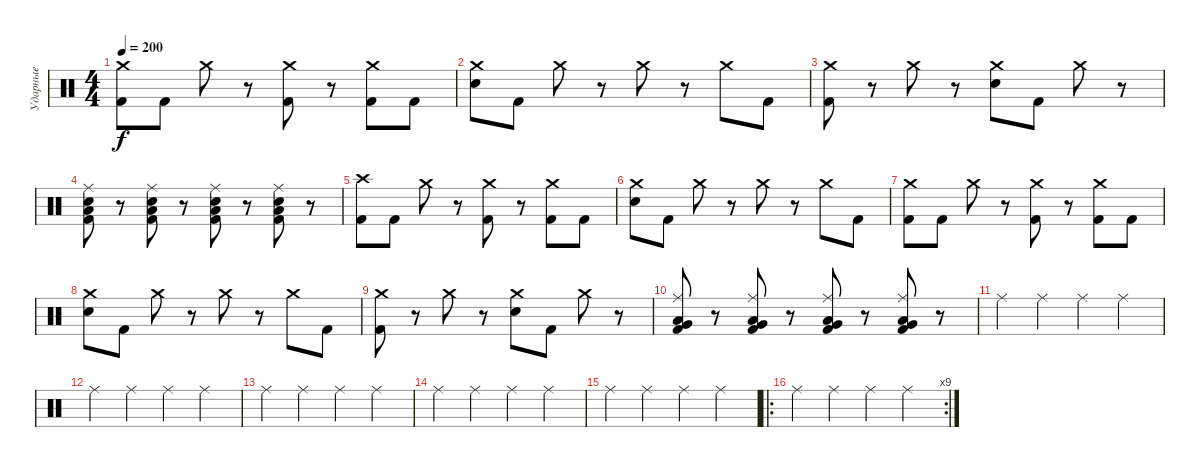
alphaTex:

\track ("Ударные" "Ударные") {instrument percussion}
\staff {score}
\articulation defaults
\ts (4 4)
\tempo 200
\clef neutral
\ks c
("Crash medium (hit)" "Kick (hit) 2").8{dy f} "Kick (hit) 2".8 "Crash medium (hit)".8 r.8 ("Crash medium (hit)" "Kick (hit) 2").8 r.8 ("Crash medium (hit)" "Kick (hit) 2").8 "Kick (hit) 2".8 |
("Crash medium (hit)" "Electric Snare (hit)").8 "Kick (hit) 2".8 "Crash medium (hit)".8 r.8 "Crash medium (hit)".8 r.8 "Crash medium (hit)".8 "Kick (hit) 2".8 |
("Crash medium (hit)" "Kick (hit) 2").8 r.8 "Crash medium (hit)".8 r.8 ("Crash medium (hit)" "Electric Snare (hit)").8 "Kick (hit) 2".8 "Crash medium (hit)".8 r.8 |
("Low Floor Tom (hit)" "Electric Snare (hit)" "Kick (hit) 2" "Ride (middle)").8 r.8 ("Low Floor Tom (hit)" "Electric Snare (hit)" "Kick (hit) 2" "Ride (middle)").8 r.8 ("Low Floor Tom (hit)" "Electric Snare (hit)" "Kick (hit) 2" "Ride (middle)").8 r.8 ("Low Floor Tom (hit)" "Electric Snare (hit)" "Kick (hit) 2" "Ride (middle)").8 r.8 |
("Crash high (hit)" "Kick (hit) 2").8 "Kick (hit) 2".8 "Crash medium (hit)".8 r.8 ("Crash medium (hit)" "Kick (hit) 2").8 r.8 ("Crash medium (hit)" "Kick (hit) 2").8 "Kick (hit) 2".8 |
("Crash medium (hit)" "Electric Snare (hit)").8 "Kick (hit) 2".8 "Crash medium (hit)".8 r.8 "Crash medium (hit)".8 r.8 "Crash medium (hit)".8 "Kick (hit) 2".8 |
("Crash medium (hit)" "Kick (hit) 2").8 "Kick (hit) 2".8 "Crash medium (hit)".8 r.8 ("Crash medium (hit)" "Kick (hit) 2").8 r.8 ("Crash medium (hit)" "Kick (hit) 2").8 "Kick (hit) 2".8 |
("Crash medium (hit)" "Electric Snare (hit)").8 "Kick (hit) 2".8 "Crash medium (hit)".8 r.8 "Crash medium (hit)".8 r.8 "Crash medium (hit)".8 "Kick (hit) 2".8 |
("Crash medium (hit)" "Kick (hit) 2").8 r.8 "Crash medium (hit)".8 r.8 ("Crash medium (hit)" "Electric Snare (hit)").8 "Kick (hit) 2".8 "Crash medium (hit)".8 r.8 |
("Low Floor Tom (hit)" "Very Low Tom (hit)" "Kick (hit) 2" "Ride (middle)").8 r.8 ("Low Floor Tom (hit)" "Very Low Tom (hit)" "Kick (hit) 2" "Ride (middle)").8 r.8 ("Low Floor Tom (hit)" "Very Low Tom (hit)" "Kick (hit) 2" "Ride (middle)").8 r.8 ("Low Floor Tom (hit)" "Very Low Tom (hit)" "Kick (hit) 2" "Ride (middle)").8 r.8 |
"Ride (middle)".4{volume 11} "Ride (middle)".4 "Ride (middle)".4 "Ride (middle)".4 |
"Ride (middle)".4 "Ride (middle)".4 "Ride (middle)".4 "Ride (middle)".4 |
"Ride (middle)".4 "Ride (middle)".4 "Ride (middle)".4 "Ride (middle)".4 |
"Ride (middle)".4 "Ride (middle)".4 "Ride (middle)".4 "Ride (middle)".4 |
"Ride (middle)".4 "Ride (middle)".4 "Ride (middle)".4 "Ride (middle)".4 |
\ro
\rc 9 "Ride (middle)".4 "Ride (middle)".4 "Ride (middle)".4 "Ride (middle)".4
